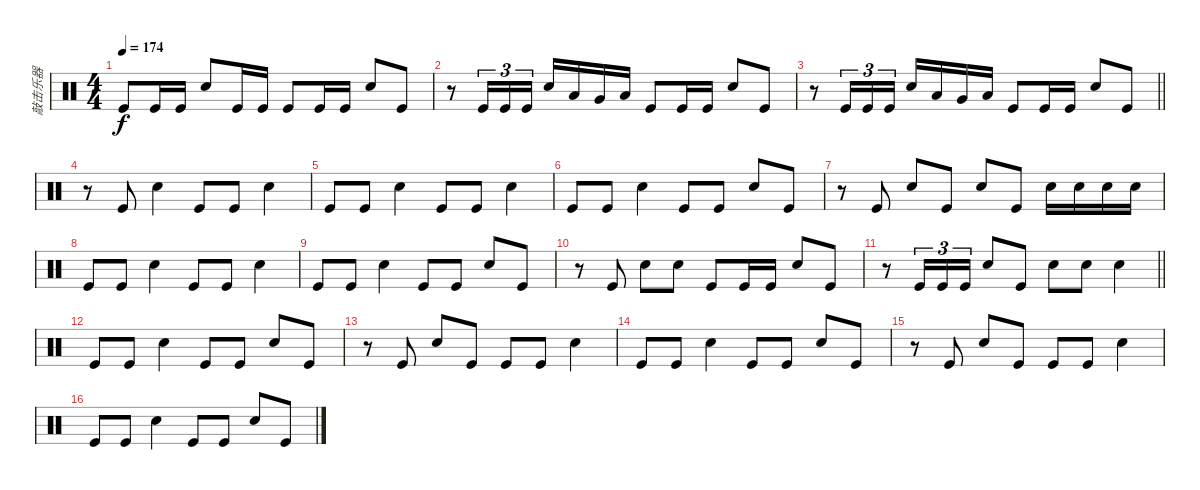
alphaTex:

\track ("敲击乐器" "敲击乐器") {instrument percussion}
\staff {score}
\articulation defaults
\ts (4 4)
\tempo 174
\clef neutral
\ks c "Kick (hit)".8{dy f} "Kick (hit)".16 "Kick (hit)".16 "Snare (hit) 2".8 "Kick (hit)".16 "Kick (hit)".16 "Kick (hit)".8 "Kick (hit)".16 "Kick (hit)".16 "Snare (hit) 2".8 "Kick (hit)".8
|
r.8 "Kick (hit)".16{tu (3 2)} "Kick (hit)".16{tu (3 2)} "Kick (hit)".16{tu (3 2)} "Snare (hit) 2".16 "Low Tom (hit)".16 "Very Low Tom (hit)".16 "Low Floor Tom (hit)".16 "Kick (hit)".8 "Kick (hit)".16 "Kick (hit)".16 "Snare (hit) 2".8 "Kick (hit)".8 |
\barLineRight lightlight
r.8 "Kick (hit)".16{tu (3 2)} "Kick (hit)".16{tu (3 2)} "Kick (hit)".16{tu (3 2)} "Snare (hit) 2".16 "Low Tom (hit)".16 "Very Low Tom (hit)".16 "Low Floor Tom (hit)".16 "Kick (hit)".8 "Kick (hit)".16 "Kick (hit)".16 "Snare (hit) 2".8 "Kick (hit)".8 |
r.8 "Kick (hit)".8 "Snare (hit) 2".4 "Kick (hit)".8 "Kick (hit)".8 "Snare (hit) 2".4 |
"Kick (hit)".8 "Kick (hit)".8 "Snare (hit) 2".4 "Kick (hit)".8 "Kick (hit)".8 "Snare (hit) 2".4 |
"Kick (hit)".8 "Kick (hit)".8 "Snare (hit) 2".4 "Kick (hit)".8 "Kick (hit)".8 "Snare (hit) 2".8 "Kick (hit)".8 |
r.8 "Kick (hit)".8 "Snare (hit) 2".8 "Kick (hit)".8 "Snare (hit) 2".8 "Kick (hit)".8 "Snare (hit) 2".16 "Snare (hit) 2".16 "Snare (hit) 2".16 "Snare (hit) 2".16 |
"Kick (hit)".8 "Kick (hit)".8 "Snare (hit) 2".4 "Kick (hit)".8 "Kick (hit)".8 "Snare (hit) 2".4 |
"Kick (hit)".8 "Kick (hit)".8 "Snare (hit) 2".4 "Kick (hit)".8 "Kick (hit)".8 "Snare (hit) 2".8 "Kick (hit)".8 |
r.8 "Kick (hit)".8 "Snare (hit) 2".8 "Snare (hit) 2".8 "Kick (hit)".8 "Kick (hit)".16 "Kick (hit)".16 "Snare (hit) 2".8 "Kick (hit)".8 |
\barLineRight lightlight
r.8 "Kick (hit)".16{tu (3 2)} "Kick (hit)".16{tu (3 2)} "Kick (hit)".16{tu (3 2)} "Snare (hit) 2".8 "Kick (hit)".8 "Snare (hit) 2".8 "Snare (hit) 2".8 "Snare (hit) 2".4 |
"Kick (hit)".8 "Kick (hit)".8 "Snare (hit) 2".4 "Kick (hit)".8 "Kick (hit)".8 "Snare (hit) 2".8 "Kick (hit)".8 |
r.8 "Kick (hit)".8 "Snare (hit) 2".8 "Kick (hit)".8 "Kick (hit)".8 "Kick (hit)".8 "Snare (hit) 2".4 |
"Kick (hit)".8 "Kick (hit)".8 "Snare (hit) 2".4 "Kick (hit)".8 "Kick (hit)".8 "Snare (hit) 2".8 "Kick (hit)".8 |
r.8 "Kick (hit)".8 "Snare (hit) 2".8 "Kick (hit)".8 "Kick (hit)".8 "Kick (hit)".8 "Snare (hit) 2".4 |
"Kick (hit)".8 "Kick (hit)".8 "Snare (hit) 2".4 "Kick (hit)".8 "Kick (hit)".8 "Snare (hit) 2".8 "Kick (hit)".8
